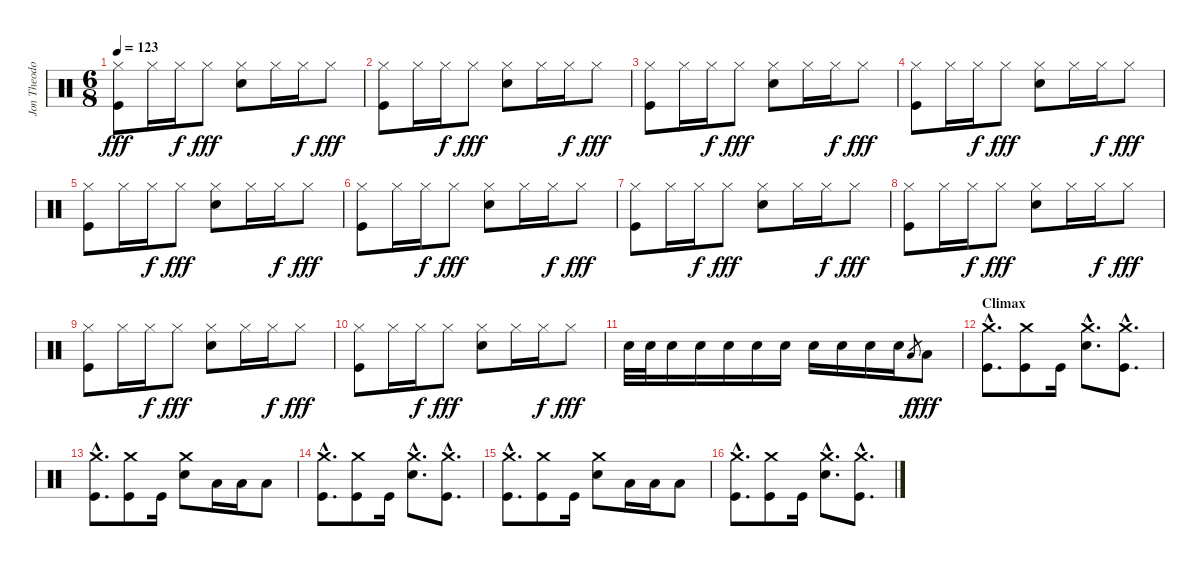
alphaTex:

\track ("Jon Theodore - Drums" "Jon Theodo") {instrument percussion}
\staff {score}
\articulation defaults
\ts (6 8)
\tempo 123
\clef neutral
\ks c
("Hi-Hat (closed)" "Kick (hit)").8{dy fff} "Hi-Hat (closed)".16 "Hi-Hat (closed)".16{dy f} "Hi-Hat (closed)".8{dy fff} ("Hi-Hat (closed)" "Snare (hit) 2").8 "Hi-Hat (closed)".16 "Hi-Hat (closed)".16{dy f} "Hi-Hat (closed)".8{dy fff} |
("Hi-Hat (closed)" "Kick (hit)").8 "Hi-Hat (closed)".16 "Hi-Hat (closed)".16{dy f} "Hi-Hat (closed)".8{dy fff} ("Hi-Hat (closed)" "Snare (hit) 2").8 "Hi-Hat (closed)".16 "Hi-Hat (closed)".16{dy f} "Hi-Hat (closed)".8{dy fff} |
("Hi-Hat (closed)" "Kick (hit)").8 "Hi-Hat (closed)".16 "Hi-Hat (closed)".16{dy f} "Hi-Hat (closed)".8{dy fff} ("Hi-Hat (closed)" "Snare (hit) 2").8 "Hi-Hat (closed)".16 "Hi-Hat (closed)".16{dy f} "Hi-Hat (closed)".8{dy fff} |
("Hi-Hat (closed)" "Kick (hit)").8 "Hi-Hat (closed)".16 "Hi-Hat (closed)".16{dy f} "Hi-Hat (closed)".8{dy fff} ("Hi-Hat (closed)" "Snare (hit) 2").8 "Hi-Hat (closed)".16 "Hi-Hat (closed)".16{dy f} "Hi-Hat (closed)".8{dy fff} |
("Hi-Hat (closed)" "Kick (hit)").8 "Hi-Hat (closed)".16 "Hi-Hat (closed)".16{dy f} "Hi-Hat (closed)".8{dy fff} ("Hi-Hat (closed)" "Snare (hit) 2").8 "Hi-Hat (closed)".16 "Hi-Hat (closed)".16{dy f} "Hi-Hat (closed)".8{dy fff} |
("Hi-Hat (closed)" "Kick (hit)").8 "Hi-Hat (closed)".16 "Hi-Hat (closed)".16{dy f} "Hi-Hat (closed)".8{dy fff} ("Hi-Hat (closed)" "Snare (hit) 2").8 "Hi-Hat (closed)".16 "Hi-Hat (closed)".16{dy f} "Hi-Hat (closed)".8{dy fff} |
("Hi-Hat (closed)" "Kick (hit)").8 "Hi-Hat (closed)".16 "Hi-Hat (closed)".16{dy f} "Hi-Hat (closed)".8{dy fff} ("Hi-Hat (closed)" "Snare (hit) 2").8 "Hi-Hat (closed)".16 "Hi-Hat (closed)".16{dy f} "Hi-Hat (closed)".8{dy fff} |
("Hi-Hat (closed)" "Kick (hit)").8 "Hi-Hat (closed)".16 "Hi-Hat (closed)".16{dy f} "Hi-Hat (closed)".8{dy fff} ("Hi-Hat (closed)" "Snare (hit) 2").8 "Hi-Hat (closed)".16 "Hi-Hat (closed)".16{dy f} "Hi-Hat (closed)".8{dy fff} |
("Hi-Hat (closed)" "Kick (hit)").8 "Hi-Hat (closed)".16 "Hi-Hat (closed)".16{dy f} "Hi-Hat (closed)".8{dy fff} ("Hi-Hat (closed)" "Snare (hit) 2").8 "Hi-Hat (closed)".16 "Hi-Hat (closed)".16{dy f} "Hi-Hat (closed)".8{dy fff} |
("Hi-Hat (closed)" "Kick (hit)").8 "Hi-Hat (closed)".16 "Hi-Hat (closed)".16{dy f} "Hi-Hat (closed)".8{dy fff} ("Hi-Hat (closed)" "Snare (hit) 2").8 "Hi-Hat (closed)".16 "Hi-Hat (closed)".16{dy f} "Hi-Hat (closed)".8{dy fff} |
"Snare (hit) 2".32 "Snare (hit) 2".32 "Snare (hit) 2".16 "Snare (hit) 2".16 "Snare (hit) 2".16 "Snare (hit) 2".16 "Snare (hit) 2".16 "Snare (hit) 2".16 "Snare (hit) 2".16 "Snare (hit) 2".16 "Snare (hit) 2".16 "Low Tom (hit)".8{gr dy f} "Low Tom (hit)".8{dy fff} |
\section ("" "Climax")
("Crash medium (hit)"{hac} "Kick (hit)"{hac}).8{d} ("Crash medium (hit)" "Kick (hit)").8 "Kick (hit)".16 ("Crash medium (hit)"{hac} "Snare (hit) 2"{hac}).8{d} ("Crash medium (hit)"{hac} "Kick (hit)"{hac}).8{d} |
("Crash medium (hit)"{hac} "Kick (hit)"{hac}).8{d} ("Crash medium (hit)" "Kick (hit)").8 "Kick (hit)".16 ("Crash medium (hit)" "Snare (hit) 2").8 "Low Tom (hit)".16 "Low Tom (hit)".16 "Low Tom (hit)".8 |
("Crash medium (hit)"{hac} "Kick (hit)"{hac}).8{d} ("Crash medium (hit)" "Kick (hit)").8 "Kick (hit)".16 ("Crash medium (hit)"{hac} "Snare (hit) 2"{hac}).8{d} ("Crash medium (hit)"{hac} "Kick (hit)"{hac}).8{d} |
("Crash medium (hit)"{hac} "Kick (hit)"{hac}).8{d} ("Crash medium (hit)" "Kick (hit)").8 "Kick (hit)".16 ("Crash medium (hit)" "Snare (hit) 2").8 "Low Tom (hit)".16 "Low Tom (hit)".16 "Low Tom (hit)".8 |
("Crash medium (hit)"{hac} "Kick (hit)"{hac}).8{d} ("Crash medium (hit)" "Kick (hit)").8 "Kick (hit)".16 ("Crash medium (hit)"{hac} "Snare (hit) 2"{hac}).8{d} ("Crash medium (hit)"{hac} "Kick (hit)"{hac}).8{d}
